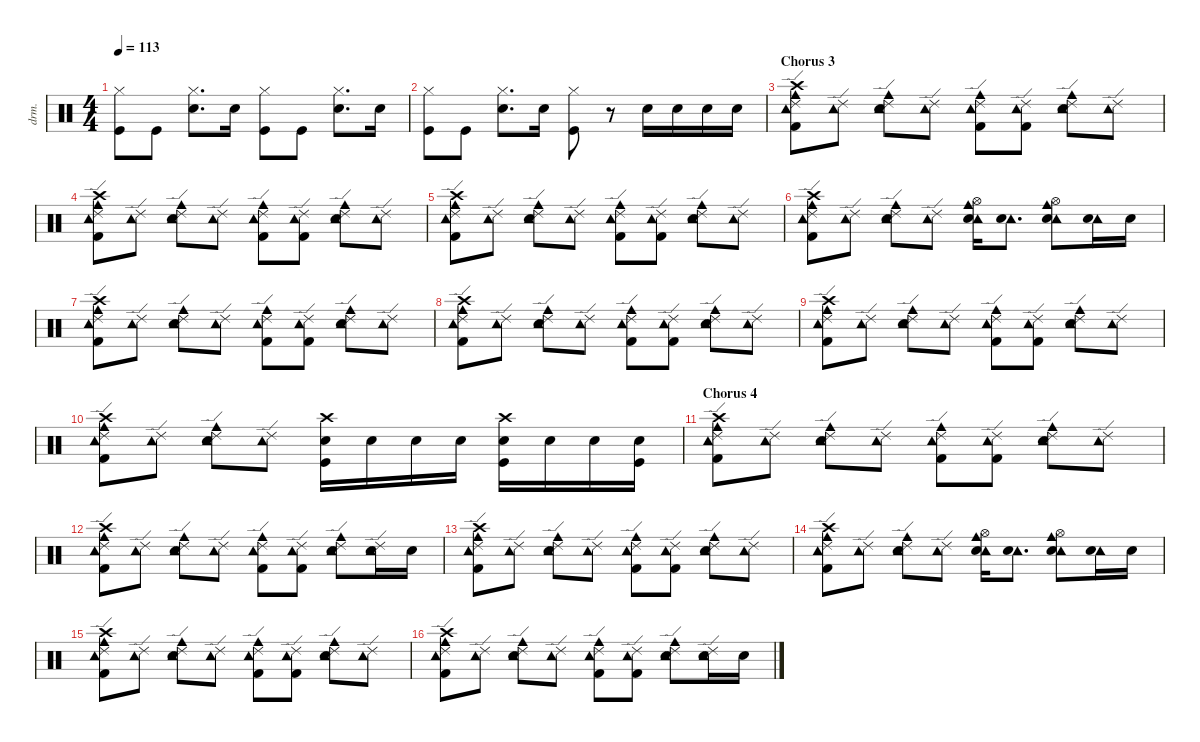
\defaultSystemsLayout 4
\hideDynamics
\bracketExtendMode nobrackets
\otherSystemsTrackNameOrientation horizontal
\track ("Rockey" "drm.") {instrument percussion}
\staff {score}
\articulation defaults
\ts (4 4)
\tempo 113
\clef neutral
\ks c
("Hi-Hat (closed)" "Kick (hit)").8{dy f beam Down} "Kick (hit)".8{beam Down} ("Hi-Hat (closed)" "Snare (hit) 2").8{d beam Down} "Snare (hit) 2".16{beam Down} ("Hi-Hat (closed)" "Kick (hit)").8{beam Down} "Kick (hit)".8{beam Down} ("Hi-Hat (closed)" "Snare (hit) 2").8{d beam Down} "Snare (hit) 2".16{beam Down} |
("Hi-Hat (closed)" "Kick (hit)").8{beam Down} "Kick (hit)".8{beam Down} ("Hi-Hat (closed)" "Snare (hit) 2").8{d beam Down} "Snare (hit) 2".16{beam Down} ("Hi-Hat (closed)" "Kick (hit)").8{beam Down} r.8{beam Down} "Snare (hit) 2".16{beam Down} "Snare (hit) 2".16{beam Down} "Snare (hit) 2".16{beam Down} "Snare (hit) 2".16{beam Down} |
\section ("" "Chorus 3")
("Ride (edge) 2" "Crash high (hit)" "Cowbell medium (hit)" "Kick (hit) 2" "Tambourine (hit)").8{beam Down} ("Ride (edge) 2" "Tambourine (hit)").8{beam Down} ("Ride (edge) 2" "Cowbell medium (hit)" "Snare (hit) 2" "Tambourine (hit)").8{beam Down} ("Ride (edge) 2" "Tambourine (hit)").8{beam Down} ("Ride (edge) 2" "Cowbell medium (hit)" "Kick (hit) 2" "Tambourine (hit)").8{beam Down} ("Ride (edge) 2" "Kick (hit) 2" "Tambourine (hit)").8{beam Down} ("Ride (edge) 2" "Cowbell medium (hit)" "Snare (hit) 2" "Tambourine (hit)").8{beam Down} ("Ride (edge) 2" "Tambourine (hit)").8{beam Down} |
("Ride (edge) 2" "Crash high (hit)" "Cowbell medium (hit)" "Kick (hit) 2" "Tambourine (hit)").8{beam Down} ("Ride (edge) 2" "Tambourine (hit)").8{beam Down} ("Ride (edge) 2" "Cowbell medium (hit)" "Snare (hit) 2" "Tambourine (hit)").8{beam Down} ("Ride (edge) 2" "Tambourine (hit)").8{beam Down} ("Ride (edge) 2" "Cowbell medium (hit)" "Kick (hit) 2" "Tambourine (hit)").8{beam Down} ("Ride (edge) 2" "Kick (hit) 2" "Tambourine (hit)").8{beam Down} ("Ride (edge) 2" "Cowbell medium (hit)" "Snare (hit) 2" "Tambourine (hit)").8{beam Down} ("Ride (edge) 2" "Tambourine (hit)").8{beam Down} |
("Ride (edge) 2" "Crash high (hit)" "Cowbell medium (hit)" "Kick (hit) 2" "Tambourine (hit)").8{beam Down} ("Ride (edge) 2" "Tambourine (hit)").8{beam Down} ("Ride (edge) 2" "Cowbell medium (hit)" "Snare (hit) 2" "Tambourine (hit)").8{beam Down} ("Ride (edge) 2" "Tambourine (hit)").8{beam Down} ("Ride (edge) 2" "Cowbell medium (hit)" "Kick (hit) 2" "Tambourine (hit)").8{beam Down} ("Ride (edge) 2" "Kick (hit) 2" "Tambourine (hit)").8{beam Down} ("Ride (edge) 2" "Cowbell medium (hit)" "Snare (hit) 2" "Tambourine (hit)").8{beam Down} ("Ride (edge) 2" "Tambourine (hit)").8{beam Down} |
("Ride (edge) 2" "Crash high (hit)" "Cowbell medium (hit)" "Kick (hit) 2" "Tambourine (hit)").8{beam Down} ("Ride (edge) 2" "Tambourine (hit)").8{beam Down} ("Ride (edge) 2" "Cowbell medium (hit)" "Snare (hit) 2" "Tambourine (hit)").8{beam Down} ("Ride (edge) 2" "Tambourine (hit)").8{beam Down} ("Hi-Hat (open)" "Tambourine (hit)" "Cowbell medium (hit)" "Snare (hit) 2").16{beam Down} ("Tambourine (hit)" "Snare (hit) 2").8{d beam Down} ("Hi-Hat (open)" "Tambourine (hit)" "Cowbell medium (hit)" "Snare (hit) 2").8{beam Down} ("Tambourine (hit)" "Snare (hit) 2").16{beam Down} "Snare (hit) 2".16{beam Down} |
("Ride (edge) 2" "Crash high (hit)" "Cowbell medium (hit)" "Kick (hit) 2" "Tambourine (hit)").8{beam Down} ("Ride (edge) 2" "Tambourine (hit)").8{beam Down} ("Ride (edge) 2" "Cowbell medium (hit)" "Snare (hit) 2" "Tambourine (hit)").8{beam Down} ("Ride (edge) 2" "Tambourine (hit)").8{beam Down} ("Ride (edge) 2" "Cowbell medium (hit)" "Kick (hit) 2" "Tambourine (hit)").8{beam Down} ("Ride (edge) 2" "Kick (hit) 2" "Tambourine (hit)").8{beam Down} ("Ride (edge) 2" "Cowbell medium (hit)" "Snare (hit) 2" "Tambourine (hit)").8{beam Down} ("Ride (edge) 2" "Tambourine (hit)").8{beam Down} |
("Ride (edge) 2" "Crash high (hit)" "Cowbell medium (hit)" "Kick (hit) 2" "Tambourine (hit)").8{beam Down} ("Ride (edge) 2" "Tambourine (hit)").8{beam Down} ("Ride (edge) 2" "Cowbell medium (hit)" "Snare (hit) 2" "Tambourine (hit)").8{beam Down} ("Ride (edge) 2" "Tambourine (hit)").8{beam Down} ("Ride (edge) 2" "Cowbell medium (hit)" "Kick (hit) 2" "Tambourine (hit)").8{beam Down} ("Ride (edge) 2" "Kick (hit) 2" "Tambourine (hit)").8{beam Down} ("Ride (edge) 2" "Cowbell medium (hit)" "Snare (hit) 2" "Tambourine (hit)").8{beam Down} ("Ride (edge) 2" "Tambourine (hit)").8{beam Down} |
("Ride (edge) 2" "Crash high (hit)" "Cowbell medium (hit)" "Kick (hit) 2" "Tambourine (hit)").8{beam Down} ("Ride (edge) 2" "Tambourine (hit)").8{beam Down} ("Ride (edge) 2" "Cowbell medium (hit)" "Snare (hit) 2" "Tambourine (hit)").8{beam Down} ("Ride (edge) 2" "Tambourine (hit)").8{beam Down} ("Ride (edge) 2" "Cowbell medium (hit)" "Kick (hit) 2" "Tambourine (hit)").8{beam Down} ("Ride (edge) 2" "Kick (hit) 2" "Tambourine (hit)").8{beam Down} ("Ride (edge) 2" "Cowbell medium (hit)" "Snare (hit) 2" "Tambourine (hit)").8{beam Down} ("Ride (edge) 2" "Tambourine (hit)").8{beam Down} |
("Ride (edge) 2" "Crash high (hit)" "Cowbell medium (hit)" "Kick (hit) 2" "Tambourine (hit)").8{beam Down} ("Ride (edge) 2" "Tambourine (hit)").8{beam Down} ("Ride (edge) 2" "Cowbell medium (hit)" "Snare (hit) 2" "Tambourine (hit)").8{beam Down} ("Ride (edge) 2" "Tambourine (hit)").8{beam Down} ("Crash high (hit)" "Snare (hit) 2" "Kick (hit)").16{beam Down} "Snare (hit) 2".16{beam Down} "Snare (hit) 2".16{beam Down} "Snare (hit) 2".16{beam Down} ("Crash high (hit)" "Snare (hit) 2" "Kick (hit)").16{beam Down} "Snare (hit) 2".16{beam Down} "Snare (hit) 2".16{beam Down} ("Snare (hit) 2" "Kick (hit)").16{beam Down} |
\section ("" "Chorus 4")
("Ride (edge) 2" "Crash high (hit)" "Cowbell medium (hit)" "Kick (hit) 2" "Tambourine (hit)").8{beam Down} ("Ride (edge) 2" "Tambourine (hit)").8{beam Down} ("Ride (edge) 2" "Cowbell medium (hit)" "Snare (hit) 2" "Tambourine (hit)").8{beam Down} ("Ride (edge) 2" "Tambourine (hit)").8{beam Down} ("Ride (edge) 2" "Cowbell medium (hit)" "Kick (hit) 2" "Tambourine (hit)").8{beam Down} ("Ride (edge) 2" "Kick (hit) 2" "Tambourine (hit)").8{beam Down} ("Ride (edge) 2" "Cowbell medium (hit)" "Snare (hit) 2" "Tambourine (hit)").8{beam Down} ("Ride (edge) 2" "Tambourine (hit)").8{beam Down} |
("Ride (edge) 2" "Crash high (hit)" "Cowbell medium (hit)" "Kick (hit) 2" "Tambourine (hit)").8{beam Down} ("Ride (edge) 2" "Tambourine (hit)").8{beam Down} ("Ride (edge) 2" "Cowbell medium (hit)" "Snare (hit) 2" "Tambourine (hit)").8{beam Down} ("Ride (edge) 2" "Tambourine (hit)").8{beam Down} ("Ride (edge) 2" "Cowbell medium (hit)" "Kick (hit) 2" "Tambourine (hit)").8{beam Down} ("Ride (edge) 2" "Kick (hit) 2" "Tambourine (hit)").8{beam Down} ("Ride (edge) 2" "Cowbell medium (hit)" "Snare (hit) 2" "Tambourine (hit)").8{beam Down} ("Ride (edge) 2" "Snare (hit) 2" "Tambourine (hit)").16{beam Down} "Snare (hit) 2".16{beam Down} |
("Ride (edge) 2" "Crash high (hit)" "Cowbell medium (hit)" "Kick (hit) 2" "Tambourine (hit)").8{beam Down} ("Ride (edge) 2" "Tambourine (hit)").8{beam Down} ("Ride (edge) 2" "Cowbell medium (hit)" "Snare (hit) 2" "Tambourine (hit)").8{beam Down} ("Ride (edge) 2" "Tambourine (hit)").8{beam Down} ("Ride (edge) 2" "Cowbell medium (hit)" "Kick (hit) 2" "Tambourine (hit)").8{beam Down} ("Ride (edge) 2" "Kick (hit) 2" "Tambourine (hit)").8{beam Down} ("Ride (edge) 2" "Cowbell medium (hit)" "Snare (hit) 2" "Tambourine (hit)").8{beam Down} ("Ride (edge) 2" "Tambourine (hit)").8{beam Down} |
("Ride (edge) 2" "Crash high (hit)" "Cowbell medium (hit)" "Kick (hit) 2" "Tambourine (hit)").8{beam Down} ("Ride (edge) 2" "Tambourine (hit)").8{beam Down} ("Ride (edge) 2" "Cowbell medium (hit)" "Snare (hit) 2" "Tambourine (hit)").8{beam Down} ("Ride (edge) 2" "Tambourine (hit)").8{beam Down} ("Hi-Hat (open)" "Tambourine (hit)" "Cowbell medium (hit)" "Snare (hit) 2").16{beam Down} ("Tambourine (hit)" "Snare (hit) 2").8{d beam Down} ("Hi-Hat (open)" "Tambourine (hit)" "Cowbell medium (hit)" "Snare (hit) 2").8{beam Down} ("Tambourine (hit)" "Snare (hit) 2").16{beam Down} "Snare (hit) 2".16{beam Down} |
("Ride (edge) 2" "Crash high (hit)" "Cowbell medium (hit)" "Kick (hit) 2" "Tambourine (hit)").8{beam Down} ("Ride (edge) 2" "Tambourine (hit)").8{beam Down} ("Ride (edge) 2" "Cowbell medium (hit)" "Snare (hit) 2" "Tambourine (hit)").8{beam Down} ("Ride (edge) 2" "Tambourine (hit)").8{beam Down} ("Ride (edge) 2" "Cowbell medium (hit)" "Kick (hit) 2" "Tambourine (hit)").8{beam Down} ("Ride (edge) 2" "Kick (hit) 2" "Tambourine (hit)").8{beam Down} ("Ride (edge) 2" "Cowbell medium (hit)" "Snare (hit) 2" "Tambourine (hit)").8{beam Down} ("Ride (edge) 2" "Tambourine (hit)").8{beam Down} |
("Ride (edge) 2" "Crash high (hit)" "Cowbell medium (hit)" "Kick (hit) 2" "Tambourine (hit)").8{beam Down} ("Ride (edge) 2" "Tambourine (hit)").8{beam Down} ("Ride (edge) 2" "Cowbell medium (hit)" "Snare (hit) 2" "Tambourine (hit)").8{beam Down} ("Ride (edge) 2" "Tambourine (hit)").8{beam Down} ("Ride (edge) 2" "Cowbell medium (hit)" "Kick (hit) 2" "Tambourine (hit)").8{beam Down} ("Ride (edge) 2" "Kick (hit) 2" "Tambourine (hit)").8{beam Down} ("Ride (edge) 2" "Cowbell medium (hit)" "Snare (hit) 2" "Tambourine (hit)").8{beam Down} ("Ride (edge) 2" "Snare (hit) 2" "Tambourine (hit)").16{beam Down} "Snare (hit) 2".16{beam Down}
